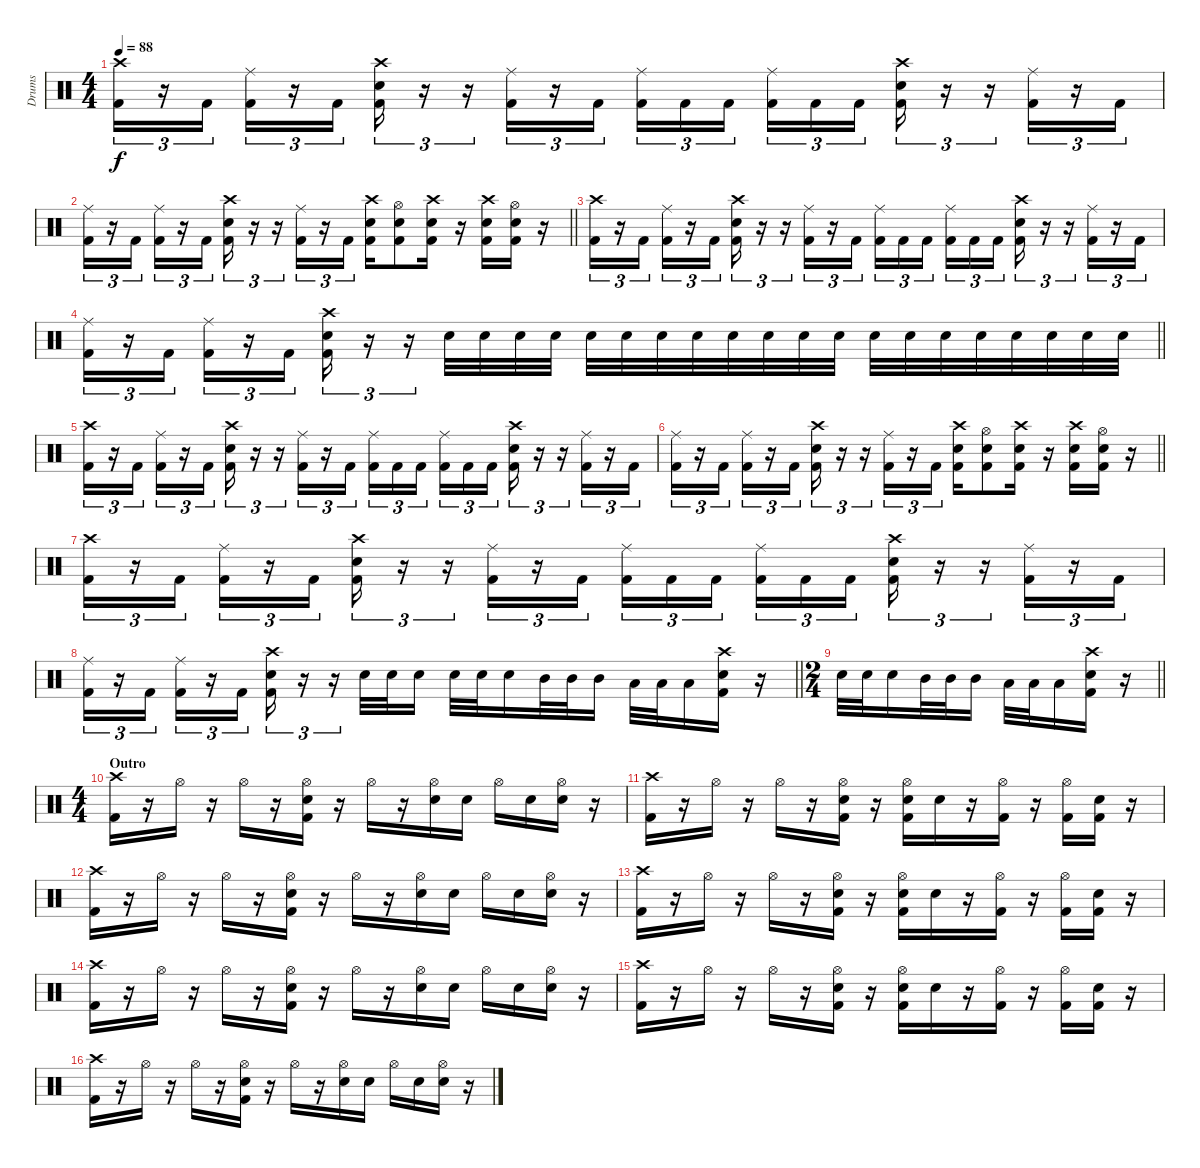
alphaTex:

\track ("Drums" "Drums") {instrument percussion}
\staff {score}
\articulation defaults
\ts (4 4)
\tempo 88
\clef neutral
\ks c
("Crash high (hit)" "Kick (hit) 2").16{tu (3 2) dy f} r.16{tu (3 2)} "Kick (hit) 2".16{tu (3 2)} ("Ride (middle)" "Kick (hit) 2").16{tu (3 2)} r.16{tu (3 2)} "Kick (hit) 2".16{tu (3 2)} ("Crash high (hit)" "Snare (hit) 2" "Kick (hit) 2").16{tu (3 2)} r.16{tu (3 2)} r.16{tu (3 2)} ("Ride (middle)" "Kick (hit) 2").16{tu (3 2)} r.16{tu (3 2)} "Kick (hit) 2".16{tu (3 2)} ("Ride (middle)" "Kick (hit) 2").16{tu (3 2)} "Kick (hit) 2".16{tu (3 2)} "Kick (hit) 2".16{tu (3 2) beam splitsecondary} ("Ride (middle)" "Kick (hit) 2").16{tu (3 2)} "Kick (hit) 2".16{tu (3 2)} "Kick (hit) 2".16{tu (3 2)} ("Crash high (hit)" "Snare (hit) 2" "Kick (hit) 2").16{tu (3 2)} r.16{tu (3 2)} r.16{tu (3 2)} ("Ride (middle)" "Kick (hit) 2").16{tu (3 2)} r.16{tu (3 2)} "Kick (hit) 2".16{tu (3 2)} |
\barLineRight lightlight
("Ride (middle)" "Kick (hit) 2").16{tu (3 2)} r.16{tu (3 2)} "Kick (hit) 2".16{tu (3 2)} ("Ride (middle)" "Kick (hit) 2").16{tu (3 2)} r.16{tu (3 2)} "Kick (hit) 2".16{tu (3 2)} ("Crash high (hit)" "Snare (hit) 2" "Kick (hit) 2").16{tu (3 2)} r.16{tu (3 2)} r.16{tu (3 2)} ("Ride (middle)" "Kick (hit) 2").16{tu (3 2)} r.16{tu (3 2)} "Kick (hit) 2".16{tu (3 2)} ("Crash high (hit)" "Snare (hit) 2" "Kick (hit) 2").16 ("Hi-Hat (open)" "Snare (hit) 2" "Kick (hit) 2").8 ("Crash high (hit)" "Snare (hit) 2" "Kick (hit) 2").16 r.16 ("Crash high (hit)" "Snare (hit) 2" "Kick (hit) 2").16 ("Hi-Hat (open)" "Snare (hit) 2" "Kick (hit) 2").16 r.16 |
("Crash high (hit)" "Kick (hit) 2").16{tu (3 2)} r.16{tu (3 2)} "Kick (hit) 2".16{tu (3 2)} ("Ride (middle)" "Kick (hit) 2").16{tu (3 2)} r.16{tu (3 2)} "Kick (hit) 2".16{tu (3 2)} ("Crash high (hit)" "Snare (hit) 2" "Kick (hit) 2").16{tu (3 2)} r.16{tu (3 2)} r.16{tu (3 2)} ("Ride (middle)" "Kick (hit) 2").16{tu (3 2)} r.16{tu (3 2)} "Kick (hit) 2".16{tu (3 2)} ("Ride (middle)" "Kick (hit) 2").16{tu (3 2)} "Kick (hit) 2".16{tu (3 2)} "Kick (hit) 2".16{tu (3 2) beam splitsecondary} ("Ride (middle)" "Kick (hit) 2").16{tu (3 2)} "Kick (hit) 2".16{tu (3 2)} "Kick (hit) 2".16{tu (3 2)} ("Crash high (hit)" "Snare (hit) 2" "Kick (hit) 2").16{tu (3 2)} r.16{tu (3 2)} r.16{tu (3 2)} ("Ride (middle)" "Kick (hit) 2").16{tu (3 2)} r.16{tu (3 2)} "Kick (hit) 2".16{tu (3 2)} |
\barLineRight lightlight
("Ride (middle)" "Kick (hit) 2").16{tu (3 2)} r.16{tu (3 2)} "Kick (hit) 2".16{tu (3 2)} ("Ride (middle)" "Kick (hit) 2").16{tu (3 2)} r.16{tu (3 2)} "Kick (hit) 2".16{tu (3 2)} ("Crash high (hit)" "Snare (hit) 2" "Kick (hit) 2").16{tu (3 2)} r.16{tu (3 2)} r.16{tu (3 2)} "Snare (hit) 2".32 "Snare (hit) 2".32 "Snare (hit) 2".32 "Snare (hit) 2".32 "Snare (hit) 2".32 "Snare (hit) 2".32 "Snare (hit) 2".32 "Snare (hit) 2".32 "Snare (hit) 2".32 "Snare (hit) 2".32 "Snare (hit) 2".32 "Snare (hit) 2".32 "Snare (hit) 2".32 "Snare (hit) 2".32 "Snare (hit) 2".32 "Snare (hit) 2".32 "Snare (hit) 2".32 "Snare (hit) 2".32 "Snare (hit) 2".32 "Snare (hit) 2".32 |
("Crash high (hit)" "Kick (hit) 2").16{tu (3 2)} r.16{tu (3 2)} "Kick (hit) 2".16{tu (3 2)} ("Ride (middle)" "Kick (hit) 2").16{tu (3 2)} r.16{tu (3 2)} "Kick (hit) 2".16{tu (3 2)} ("Crash high (hit)" "Snare (hit) 2" "Kick (hit) 2").16{tu (3 2)} r.16{tu (3 2)} r.16{tu (3 2)} ("Ride (middle)" "Kick (hit) 2").16{tu (3 2)} r.16{tu (3 2)} "Kick (hit) 2".16{tu (3 2)} ("Ride (middle)" "Kick (hit) 2").16{tu (3 2)} "Kick (hit) 2".16{tu (3 2)} "Kick (hit) 2".16{tu (3 2) beam splitsecondary} ("Ride (middle)" "Kick (hit) 2").16{tu (3 2)} "Kick (hit) 2".16{tu (3 2)} "Kick (hit) 2".16{tu (3 2)} ("Crash high (hit)" "Snare (hit) 2" "Kick (hit) 2").16{tu (3 2)} r.16{tu (3 2)} r.16{tu (3 2)} ("Ride (middle)" "Kick (hit) 2").16{tu (3 2)} r.16{tu (3 2)} "Kick (hit) 2".16{tu (3 2)} |
\barLineRight lightlight
("Ride (middle)" "Kick (hit) 2").16{tu (3 2)} r.16{tu (3 2)} "Kick (hit) 2".16{tu (3 2)} ("Ride (middle)" "Kick (hit) 2").16{tu (3 2)} r.16{tu (3 2)} "Kick (hit) 2".16{tu (3 2)} ("Crash high (hit)" "Snare (hit) 2" "Kick (hit) 2").16{tu (3 2)} r.16{tu (3 2)} r.16{tu (3 2)} ("Ride (middle)" "Kick (hit) 2").16{tu (3 2)} r.16{tu (3 2)} "Kick (hit) 2".16{tu (3 2)} ("Crash high (hit)" "Snare (hit) 2" "Kick (hit) 2").16 ("Hi-Hat (open)" "Snare (hit) 2" "Kick (hit) 2").8 ("Crash high (hit)" "Snare (hit) 2" "Kick (hit) 2").16 r.16 ("Crash high (hit)" "Snare (hit) 2" "Kick (hit) 2").16 ("Hi-Hat (open)" "Snare (hit) 2" "Kick (hit) 2").16 r.16 |
("Crash high (hit)" "Kick (hit) 2").16{tu (3 2)} r.16{tu (3 2)} "Kick (hit) 2".16{tu (3 2)} ("Ride (middle)" "Kick (hit) 2").16{tu (3 2)} r.16{tu (3 2)} "Kick (hit) 2".16{tu (3 2)} ("Crash high (hit)" "Snare (hit) 2" "Kick (hit) 2").16{tu (3 2)} r.16{tu (3 2)} r.16{tu (3 2)} ("Ride (middle)" "Kick (hit) 2").16{tu (3 2)} r.16{tu (3 2)} "Kick (hit) 2".16{tu (3 2)} ("Ride (middle)" "Kick (hit) 2").16{tu (3 2)} "Kick (hit) 2".16{tu (3 2)} "Kick (hit) 2".16{tu (3 2) beam splitsecondary} ("Ride (middle)" "Kick (hit) 2").16{tu (3 2)} "Kick (hit) 2".16{tu (3 2)} "Kick (hit) 2".16{tu (3 2)} ("Crash high (hit)" "Snare (hit) 2" "Kick (hit) 2").16{tu (3 2)} r.16{tu (3 2)} r.16{tu (3 2)} ("Ride (middle)" "Kick (hit) 2").16{tu (3 2)} r.16{tu (3 2)} "Kick (hit) 2".16{tu (3 2)} |
\barLineRight lightlight
("Ride (middle)" "Kick (hit) 2").16{tu (3 2)} r.16{tu (3 2)} "Kick (hit) 2".16{tu (3 2)} ("Ride (middle)" "Kick (hit) 2").16{tu (3 2)} r.16{tu (3 2)} "Kick (hit) 2".16{tu (3 2)} ("Crash high (hit)" "Snare (hit) 2" "Kick (hit) 2").16{tu (3 2)} r.16{tu (3 2)} r.16{tu (3 2)} "Snare (hit) 2".32 "Snare (hit) 2".32 "Snare (hit) 2".16 "Snare (hit) 2".32 "Snare (hit) 2".32 "Snare (hit) 2".16 "Mid Tom (hit)".32 "Mid Tom (hit)".32 "Mid Tom (hit)".16 "Low Tom (hit)".32 "Low Tom (hit)".32 "Low Tom (hit)".16 ("Crash high (hit)" "Snare (hit) 2" "Kick (hit) 2").16 r.16 |
\ts (2 4)
\barLineRight lightlight "Snare (hit) 2".32 "Snare (hit) 2".32 "Snare (hit) 2".16 "Mid Tom (hit)".32 "Mid Tom (hit)".32 "Mid Tom (hit)".16 "Low Tom (hit)".32 "Low Tom (hit)".32 "Low Tom (hit)".16
("Crash high (hit)" "Snare (hit) 2" "Kick (hit) 2").16 r.16 |
\ts (4 4)
\section ("" "Outro")
("Crash high (hit)" "Kick (hit) 2").16 r.16 "Hi-Hat (open)".16 r.16 "Hi-Hat (open)".16 r.16 ("Hi-Hat (open)" "Snare (hit) 2" "Kick (hit) 2").16 r.16 "Hi-Hat (open)".16 r.16 ("Hi-Hat (open)" "Snare (hit) 2").16 "Snare (hit) 2".16 "Hi-Hat (open)".16 "Snare (hit) 2".16 ("Hi-Hat (open)" "Snare (hit) 2").16 r.16 |
("Crash high (hit)" "Kick (hit) 2").16 r.16 "Hi-Hat (open)".16 r.16 "Hi-Hat (open)".16 r.16 ("Hi-Hat (open)" "Snare (hit) 2" "Kick (hit) 2").16 r.16 ("Hi-Hat (open)" "Snare (hit) 2" "Kick (hit) 2").16 "Snare (hit) 2".16 r.16 ("Hi-Hat (open)" "Kick (hit) 2").16 r.16 ("Hi-Hat (open)" "Kick (hit) 2").16 ("Snare (hit) 2" "Kick (hit) 2").16 r.16 |
("Crash high (hit)" "Kick (hit) 2").16 r.16 "Hi-Hat (open)".16 r.16 "Hi-Hat (open)".16 r.16 ("Hi-Hat (open)" "Snare (hit) 2" "Kick (hit) 2").16 r.16 "Hi-Hat (open)".16 r.16 ("Hi-Hat (open)" "Snare (hit) 2").16 "Snare (hit) 2".16 "Hi-Hat (open)".16 "Snare (hit) 2".16 ("Hi-Hat (open)" "Snare (hit) 2").16 r.16 |
("Crash high (hit)" "Kick (hit) 2").16 r.16 "Hi-Hat (open)".16 r.16 "Hi-Hat (open)".16 r.16 ("Hi-Hat (open)" "Snare (hit) 2" "Kick (hit) 2").16 r.16 ("Hi-Hat (open)" "Snare (hit) 2" "Kick (hit) 2").16 "Snare (hit) 2".16 r.16 ("Hi-Hat (open)" "Kick (hit) 2").16 r.16 ("Hi-Hat (open)" "Kick (hit) 2").16 ("Snare (hit) 2" "Kick (hit) 2").16 r.16 |
("Crash high (hit)" "Kick (hit) 2").16 r.16 "Hi-Hat (open)".16 r.16 "Hi-Hat (open)".16 r.16 ("Hi-Hat (open)" "Snare (hit) 2" "Kick (hit) 2").16 r.16 "Hi-Hat (open)".16 r.16 ("Hi-Hat (open)" "Snare (hit) 2").16 "Snare (hit) 2".16 "Hi-Hat (open)".16 "Snare (hit) 2".16 ("Hi-Hat (open)" "Snare (hit) 2").16 r.16 |
("Crash high (hit)" "Kick (hit) 2").16 r.16 "Hi-Hat (open)".16 r.16 "Hi-Hat (open)".16 r.16 ("Hi-Hat (open)" "Snare (hit) 2" "Kick (hit) 2").16 r.16 ("Hi-Hat (open)" "Snare (hit) 2" "Kick (hit) 2").16 "Snare (hit) 2".16 r.16 ("Hi-Hat (open)" "Kick (hit) 2").16 r.16 ("Hi-Hat (open)" "Kick (hit) 2").16 ("Snare (hit) 2" "Kick (hit) 2").16 r.16 |
("Crash high (hit)" "Kick (hit) 2").16 r.16 "Hi-Hat (open)".16 r.16 "Hi-Hat (open)".16 r.16 ("Hi-Hat (open)" "Snare (hit) 2" "Kick (hit) 2").16 r.16 "Hi-Hat (open)".16 r.16 ("Hi-Hat (open)" "Snare (hit) 2").16 "Snare (hit) 2".16 "Hi-Hat (open)".16 "Snare (hit) 2".16 ("Hi-Hat (open)" "Snare (hit) 2").16 r.16
